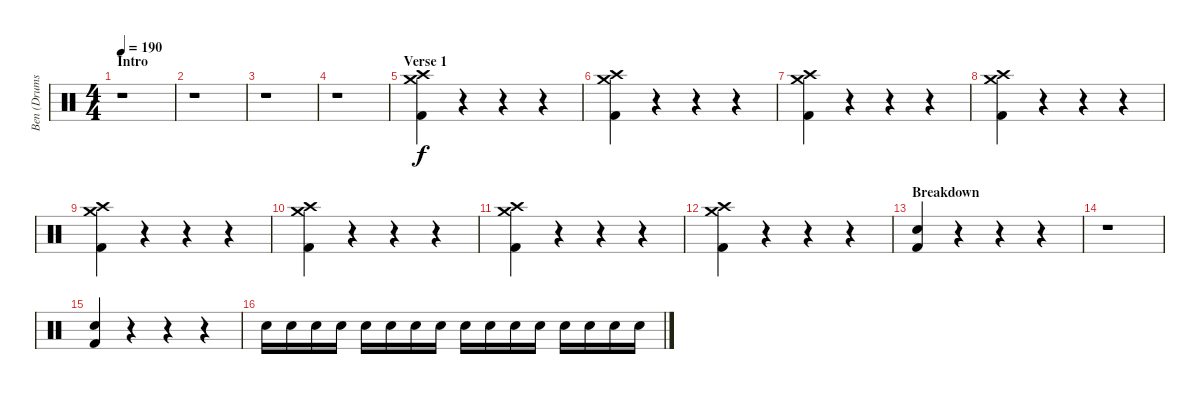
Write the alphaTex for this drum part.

\track ("Ben (Drums)" "Ben (Drums") {instrument percussion}
\staff {score}
\articulation defaults
\ts (4 4)
\section ("" "Intro")
\tempo 190
\clef neutral
\ks c
r.1{dy f} |
r.1 |
r.1 |
r.1 |
\section ("" "Verse 1")
("Kick (hit) 2" "Crash medium (hit)" "Crash high (hit)").4 r.4 r.4 r.4 |
("Kick (hit) 2" "Crash medium (hit)" "Crash high (hit)").4 r.4 r.4 r.4 |
("Kick (hit) 2" "Crash medium (hit)" "Crash high (hit)").4 r.4 r.4 r.4 |
("Kick (hit) 2" "Crash medium (hit)" "Crash high (hit)").4 r.4 r.4 r.4 |
("Kick (hit) 2" "Crash medium (hit)" "Crash high (hit)").4 r.4 r.4 r.4 |
("Kick (hit) 2" "Crash medium (hit)" "Crash high (hit)").4 r.4 r.4 r.4 |
("Kick (hit) 2" "Crash medium (hit)" "Crash high (hit)").4 r.4 r.4 r.4 |
("Kick (hit) 2" "Crash medium (hit)" "Crash high (hit)").4 r.4 r.4 r.4 |
\section ("" "Breakdown")
("Kick (hit) 2" "Snare (hit) 2").4 r.4 r.4 r.4 |
r.1 |
("Kick (hit) 2" "Snare (hit) 2").4 r.4 r.4 r.4 |
"Snare (hit) 2".16{volume 16} "Snare (hit) 2".16 "Snare (hit) 2".16 "Snare (hit) 2".16 "Snare (hit) 2".16 "Snare (hit) 2".16 "Snare (hit) 2".16 "Snare (hit) 2".16 "Snare (hit) 2".16 "Snare (hit) 2".16 "Snare (hit) 2".16 "Snare (hit) 2".16 "Snare (hit) 2".16 "Snare (hit) 2".16 "Snare (hit) 2".16 "Snare (hit) 2".16
